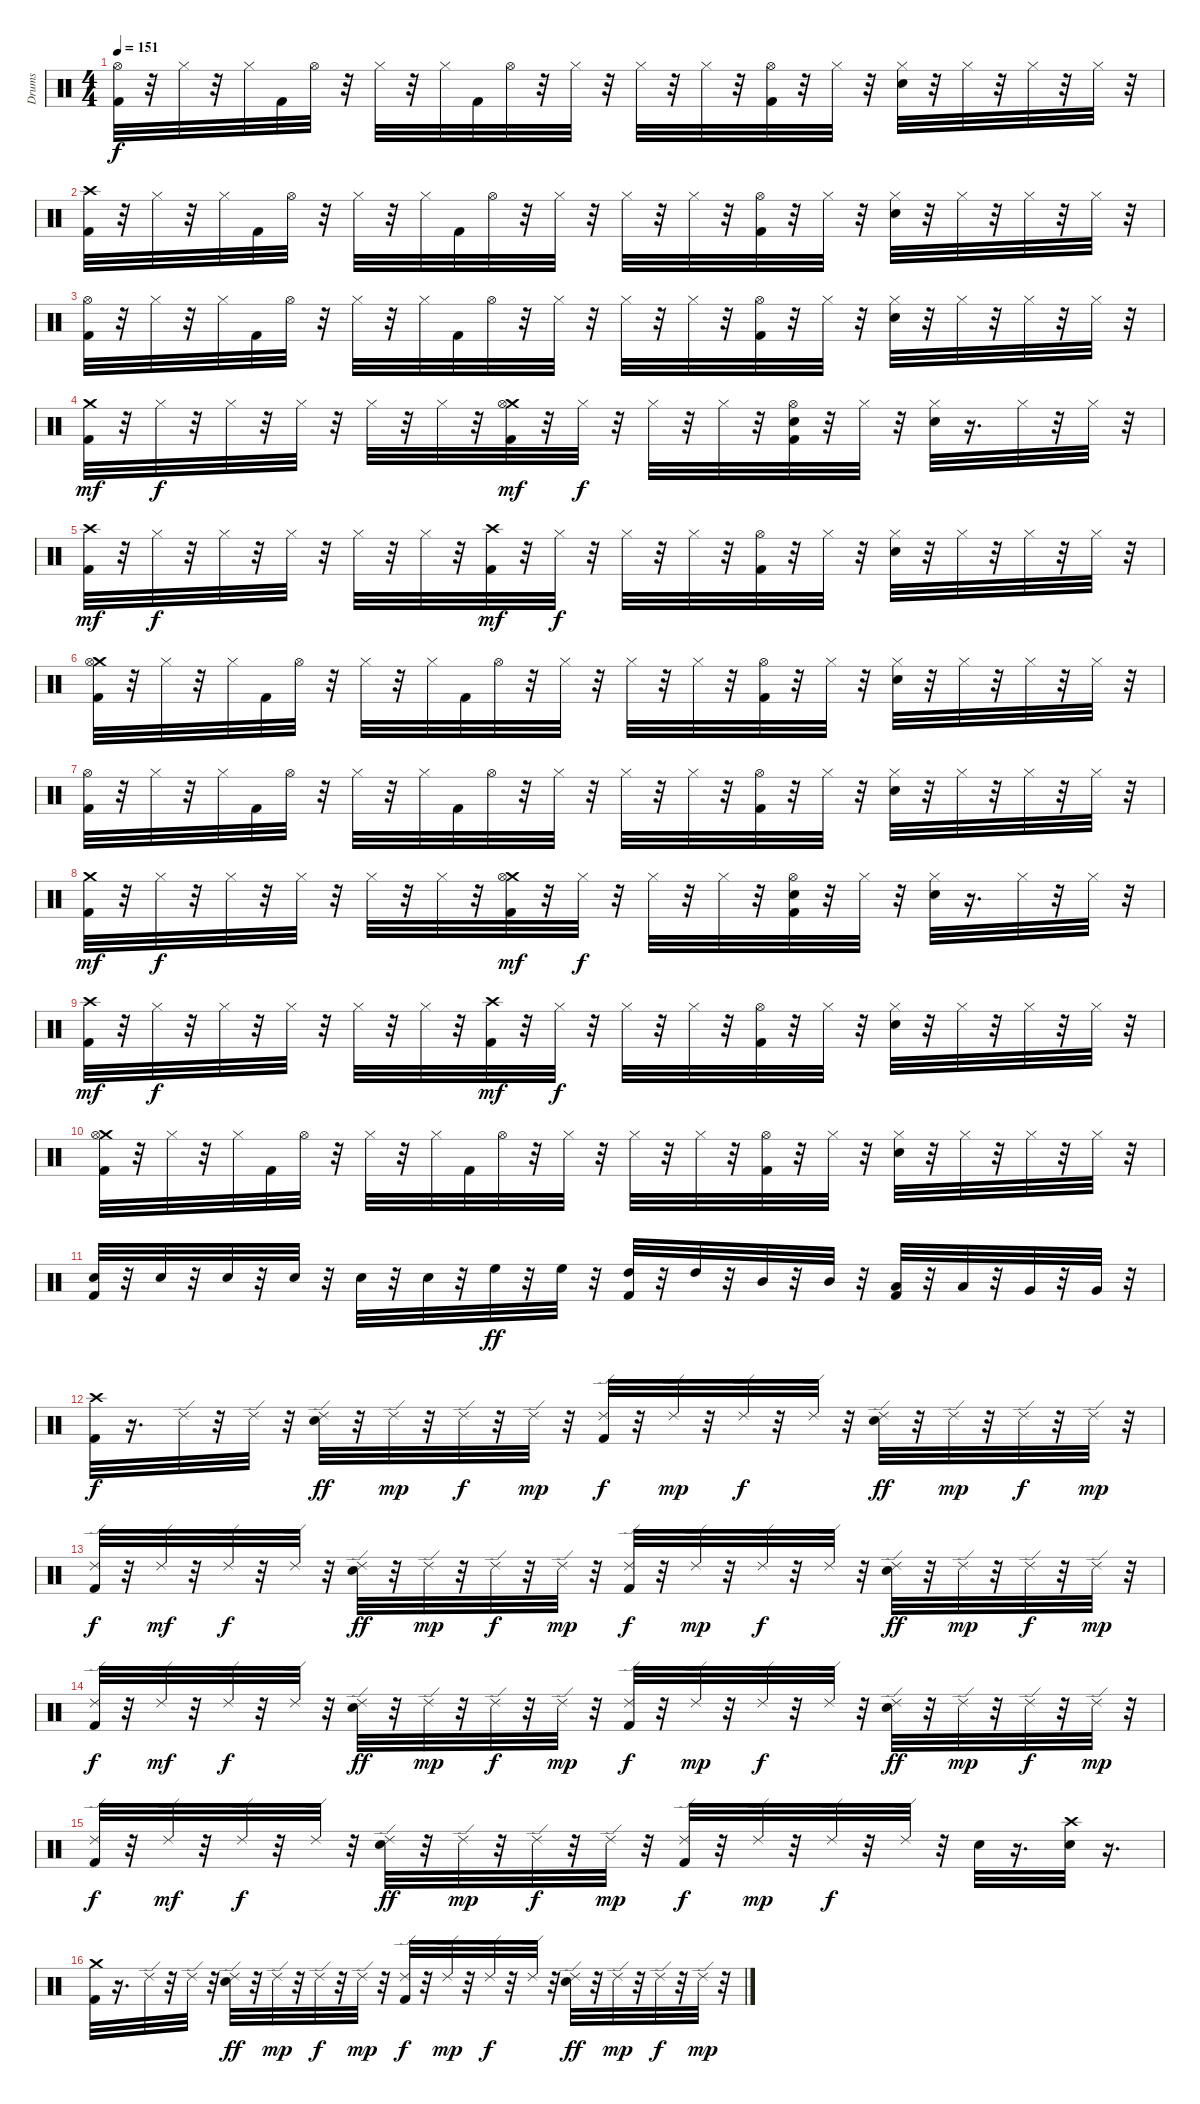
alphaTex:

\track ("Drums" "Drums") {instrument percussion}
\staff {score}
\articulation defaults
\ts (4 4)
\tempo 151
\clef neutral
\ks c
("Hi-Hat (open)" "Kick (hit) 2").32{dy f} r.32 "Hi-Hat (closed)".32 r.32 "Hi-Hat (closed)".32 "Kick (hit) 2".32 "Hi-Hat (open)".32 r.32 "Hi-Hat (closed)".32 r.32 "Hi-Hat (closed)".32 "Kick (hit) 2".32 "Hi-Hat (open)".32 r.32 "Hi-Hat (closed)".32 r.32 "Hi-Hat (closed)".32 r.32 "Hi-Hat (closed)".32 r.32 ("Hi-Hat (open)" "Kick (hit) 2").32 r.32 "Hi-Hat (closed)".32 r.32 ("Electric Snare (hit)" "Hi-Hat (closed)").32 r.32 "Hi-Hat (closed)".32 r.32 "Hi-Hat (closed)".32 r.32 "Hi-Hat (closed)".32 r.32 |
("Crash high (hit)" "Kick (hit) 2").32 r.32 "Hi-Hat (closed)".32 r.32 "Hi-Hat (closed)".32 "Kick (hit) 2".32 "Hi-Hat (open)".32 r.32 "Hi-Hat (closed)".32 r.32 "Hi-Hat (closed)".32 "Kick (hit) 2".32 "Hi-Hat (open)".32 r.32 "Hi-Hat (closed)".32 r.32 "Hi-Hat (closed)".32 r.32 "Hi-Hat (closed)".32 r.32 ("Hi-Hat (open)" "Kick (hit) 2").32 r.32 "Hi-Hat (closed)".32 r.32 ("Electric Snare (hit)" "Hi-Hat (closed)").32 r.32 "Hi-Hat (closed)".32 r.32 "Hi-Hat (closed)".32 r.32 "Hi-Hat (closed)".32 r.32 |
("Hi-Hat (open)" "Kick (hit) 2").32 r.32 "Hi-Hat (closed)".32 r.32 "Hi-Hat (closed)".32 "Kick (hit) 2".32 "Hi-Hat (open)".32 r.32 "Hi-Hat (closed)".32 r.32 "Hi-Hat (closed)".32 "Kick (hit) 2".32 "Hi-Hat (open)".32 r.32 "Hi-Hat (closed)".32 r.32 "Hi-Hat (closed)".32 r.32 "Hi-Hat (closed)".32 r.32 ("Hi-Hat (open)" "Kick (hit) 2").32 r.32 "Hi-Hat (closed)".32 r.32 ("Electric Snare (hit)" "Hi-Hat (closed)").32 r.32 "Hi-Hat (closed)".32 r.32 "Hi-Hat (closed)".32 r.32 "Hi-Hat (closed)".32 r.32 |
("Crash medium (hit)" "Kick (hit) 2").32{dy mf} r.32 "Hi-Hat (closed)".32{dy f} r.32 "Hi-Hat (closed)".32 r.32 "Hi-Hat (closed)".32 r.32 "Hi-Hat (closed)".32 r.32 "Hi-Hat (closed)".32 r.32 ("Crash medium (hit)" "Hi-Hat (open)" "Kick (hit) 2").32{dy mf} r.32 "Hi-Hat (closed)".32{dy f} r.32 "Hi-Hat (closed)".32 r.32 "Hi-Hat (closed)".32 r.32 ("Electric Snare (hit)" "Hi-Hat (open)" "Kick (hit) 2").32 r.32 "Hi-Hat (closed)".32 r.32 ("Electric Snare (hit)" "Hi-Hat (closed)").32 r.16{d} "Hi-Hat (closed)".32 r.32 "Hi-Hat (closed)".32 r.32 |
("Crash high (hit)" "Kick (hit) 2").32{dy mf} r.32 "Hi-Hat (closed)".32{dy f} r.32 "Hi-Hat (closed)".32 r.32 "Hi-Hat (closed)".32 r.32 "Hi-Hat (closed)".32 r.32 "Hi-Hat (closed)".32 r.32 ("Crash high (hit)" "Kick (hit) 2").32{dy mf} r.32 "Hi-Hat (closed)".32{dy f} r.32 "Hi-Hat (closed)".32 r.32 "Hi-Hat (closed)".32 r.32 ("Hi-Hat (open)" "Kick (hit) 2").32 r.32 "Hi-Hat (closed)".32 r.32 ("Electric Snare (hit)" "Hi-Hat (closed)").32 r.32 "Hi-Hat (closed)".32 r.32 "Hi-Hat (closed)".32 r.32 "Hi-Hat (closed)".32 r.32 |
("Crash medium (hit)" "Hi-Hat (open)" "Kick (hit) 2").32 r.32 "Hi-Hat (closed)".32 r.32 "Hi-Hat (closed)".32 "Kick (hit) 2".32 "Hi-Hat (open)".32 r.32 "Hi-Hat (closed)".32 r.32 "Hi-Hat (closed)".32 "Kick (hit) 2".32 "Hi-Hat (open)".32 r.32 "Hi-Hat (closed)".32 r.32 "Hi-Hat (closed)".32 r.32 "Hi-Hat (closed)".32 r.32 ("Hi-Hat (open)" "Kick (hit) 2").32 r.32 "Hi-Hat (closed)".32 r.32 ("Electric Snare (hit)" "Hi-Hat (closed)").32 r.32 "Hi-Hat (closed)".32 r.32 "Hi-Hat (closed)".32 r.32 "Hi-Hat (closed)".32 r.32 |
("Hi-Hat (open)" "Kick (hit) 2").32 r.32 "Hi-Hat (closed)".32 r.32 "Hi-Hat (closed)".32 "Kick (hit) 2".32 "Hi-Hat (open)".32 r.32 "Hi-Hat (closed)".32 r.32 "Hi-Hat (closed)".32 "Kick (hit) 2".32 "Hi-Hat (open)".32 r.32 "Hi-Hat (closed)".32 r.32 "Hi-Hat (closed)".32 r.32 "Hi-Hat (closed)".32 r.32 ("Hi-Hat (open)" "Kick (hit) 2").32 r.32 "Hi-Hat (closed)".32 r.32 ("Electric Snare (hit)" "Hi-Hat (closed)").32 r.32 "Hi-Hat (closed)".32 r.32 "Hi-Hat (closed)".32 r.32 "Hi-Hat (closed)".32 r.32 |
("Crash medium (hit)" "Kick (hit) 2").32{dy mf} r.32 "Hi-Hat (closed)".32{dy f} r.32 "Hi-Hat (closed)".32 r.32 "Hi-Hat (closed)".32 r.32 "Hi-Hat (closed)".32 r.32 "Hi-Hat (closed)".32 r.32 ("Crash medium (hit)" "Hi-Hat (open)" "Kick (hit) 2").32{dy mf} r.32 "Hi-Hat (closed)".32{dy f} r.32 "Hi-Hat (closed)".32 r.32 "Hi-Hat (closed)".32 r.32 ("Electric Snare (hit)" "Hi-Hat (open)" "Kick (hit) 2").32 r.32 "Hi-Hat (closed)".32 r.32 ("Electric Snare (hit)" "Hi-Hat (closed)").32 r.16{d} "Hi-Hat (closed)".32 r.32 "Hi-Hat (closed)".32 r.32 |
("Crash high (hit)" "Kick (hit) 2").32{dy mf} r.32 "Hi-Hat (closed)".32{dy f} r.32 "Hi-Hat (closed)".32 r.32 "Hi-Hat (closed)".32 r.32 "Hi-Hat (closed)".32 r.32 "Hi-Hat (closed)".32 r.32 ("Crash high (hit)" "Kick (hit) 2").32{dy mf} r.32 "Hi-Hat (closed)".32{dy f} r.32 "Hi-Hat (closed)".32 r.32 "Hi-Hat (closed)".32 r.32 ("Hi-Hat (open)" "Kick (hit) 2").32 r.32 "Hi-Hat (closed)".32 r.32 ("Electric Snare (hit)" "Hi-Hat (closed)").32 r.32 "Hi-Hat (closed)".32 r.32 "Hi-Hat (closed)".32 r.32 "Hi-Hat (closed)".32 r.32 |
("Crash medium (hit)" "Hi-Hat (open)" "Kick (hit) 2").32 r.32 "Hi-Hat (closed)".32 r.32 "Hi-Hat (closed)".32 "Kick (hit) 2".32 "Hi-Hat (open)".32 r.32 "Hi-Hat (closed)".32 r.32 "Hi-Hat (closed)".32 "Kick (hit) 2".32 "Hi-Hat (open)".32 r.32 "Hi-Hat (closed)".32 r.32 "Hi-Hat (closed)".32 r.32 "Hi-Hat (closed)".32 r.32 ("Hi-Hat (open)" "Kick (hit) 2").32 r.32 "Hi-Hat (closed)".32 r.32 ("Electric Snare (hit)" "Hi-Hat (closed)").32 r.32 "Hi-Hat (closed)".32 r.32 "Hi-Hat (closed)".32 r.32 "Hi-Hat (closed)".32 r.32 |
("Electric Snare (hit)" "Kick (hit) 2").32 r.32 "Electric Snare (hit)".32 r.32 "Electric Snare (hit)".32 r.32 "Electric Snare (hit)".32 r.32 "Electric Snare (hit)".32 r.32 "Electric Snare (hit)".32 r.32 "High Floor Tom (hit)".32{dy ff} r.32 "High Floor Tom (hit)".32 r.32 ("High Tom (hit)" "Kick (hit) 2").32 r.32 "High Tom (hit)".32 r.32 "Mid Tom (hit)".32 r.32 "Mid Tom (hit)".32 r.32 ("Low Tom (hit)" "Kick (hit) 2").32 r.32 "Low Tom (hit)".32 r.32 "Very Low Tom (hit)".32 r.32 "Very Low Tom (hit)".32 r.32 |
("Crash high (hit)" "Kick (hit) 2").32{dy f} r.16{d} "Ride (edge) 2".32 r.32 "Ride (edge) 2".32 r.32 ("Ride (edge) 2" "Electric Snare (hit)").32{dy ff} r.32 "Ride (edge) 2".32{dy mp} r.32 "Ride (edge) 2".32{dy f} r.32 "Ride (edge) 2".32{dy mp} r.32 ("Ride (edge) 2" "Kick (hit) 2").32{dy f} r.32 "Ride (edge) 2".32{dy mp} r.32 "Ride (edge) 2".32{dy f} r.32 "Ride (edge) 2".32 r.32 ("Ride (edge) 2" "Electric Snare (hit)").32{dy ff} r.32 "Ride (edge) 2".32{dy mp} r.32 "Ride (edge) 2".32{dy f} r.32 "Ride (edge) 2".32{dy mp} r.32 |
("Ride (edge) 2" "Kick (hit) 2").32{dy f} r.32 "Ride (edge) 2".32{dy mf} r.32 "Ride (edge) 2".32{dy f} r.32 "Ride (edge) 2".32 r.32 ("Ride (edge) 2" "Electric Snare (hit)").32{dy ff} r.32 "Ride (edge) 2".32{dy mp} r.32 "Ride (edge) 2".32{dy f} r.32 "Ride (edge) 2".32{dy mp} r.32 ("Ride (edge) 2" "Kick (hit) 2").32{dy f} r.32 "Ride (edge) 2".32{dy mp} r.32 "Ride (edge) 2".32{dy f} r.32 "Ride (edge) 2".32 r.32 ("Ride (edge) 2" "Electric Snare (hit)").32{dy ff} r.32 "Ride (edge) 2".32{dy mp} r.32 "Ride (edge) 2".32{dy f} r.32 "Ride (edge) 2".32{dy mp} r.32 |
("Ride (edge) 2" "Kick (hit) 2").32{dy f} r.32 "Ride (edge) 2".32{dy mf} r.32 "Ride (edge) 2".32{dy f} r.32 "Ride (edge) 2".32 r.32 ("Ride (edge) 2" "Electric Snare (hit)").32{dy ff} r.32 "Ride (edge) 2".32{dy mp} r.32 "Ride (edge) 2".32{dy f} r.32 "Ride (edge) 2".32{dy mp} r.32 ("Ride (edge) 2" "Kick (hit) 2").32{dy f} r.32 "Ride (edge) 2".32{dy mp} r.32 "Ride (edge) 2".32{dy f} r.32 "Ride (edge) 2".32 r.32 ("Ride (edge) 2" "Electric Snare (hit)").32{dy ff} r.32 "Ride (edge) 2".32{dy mp} r.32 "Ride (edge) 2".32{dy f} r.32 "Ride (edge) 2".32{dy mp} r.32 |
("Ride (edge) 2" "Kick (hit) 2").32{dy f} r.32 "Ride (edge) 2".32{dy mf} r.32 "Ride (edge) 2".32{dy f} r.32 "Ride (edge) 2".32 r.32 ("Ride (edge) 2" "Electric Snare (hit)").32{dy ff} r.32 "Ride (edge) 2".32{dy mp} r.32 "Ride (edge) 2".32{dy f} r.32 "Ride (edge) 2".32{dy mp} r.32 ("Ride (edge) 2" "Kick (hit) 2").32{dy f} r.32 "Ride (edge) 2".32{dy mp} r.32 "Ride (edge) 2".32{dy f} r.32 "Ride (edge) 2".32 r.32 "Electric Snare (hit)".32 r.16{d} ("Crash high (hit)" "Electric Snare (hit)").32 r.16{d} |
("Crash medium (hit)" "Kick (hit) 2").32 r.16{d} "Ride (edge) 2".32 r.32 "Ride (edge) 2".32 r.32 ("Ride (edge) 2" "Electric Snare (hit)").32{dy ff} r.32 "Ride (edge) 2".32{dy mp} r.32 "Ride (edge) 2".32{dy f} r.32 "Ride (edge) 2".32{dy mp} r.32 ("Ride (edge) 2" "Kick (hit) 2").32{dy f} r.32 "Ride (edge) 2".32{dy mp} r.32 "Ride (edge) 2".32{dy f} r.32 "Ride (edge) 2".32 r.32 ("Ride (edge) 2" "Electric Snare (hit)").32{dy ff} r.32 "Ride (edge) 2".32{dy mp} r.32 "Ride (edge) 2".32{dy f} r.32 "Ride (edge) 2".32{dy mp} r.32
